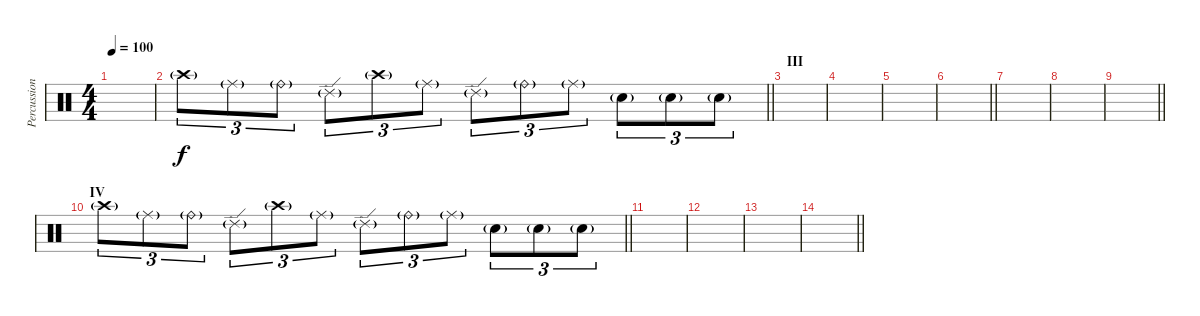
\track ("Percussion" "Percussion") {instrument percussion}
\staff {score}
\articulation defaults
\ts (4 4)
\tempo 100
\clef neutral
\ks c
|
\barLineRight lightlight "Crash high (hit)"{g}.8{tu (3 2)} "Ride (middle)"{g}.8{tu (3 2)} "Ride (bell)"{g}.8{tu (3 2)} "Ride (edge) 2"{g}.8{tu (3 2)} "Crash high (hit)"{g}.8{tu (3 2)} "Ride (middle)"{g}.8{tu (3 2)} "Ride (edge) 2"{g}.8{tu (3 2)} "Ride (bell)"{g}.8{tu (3 2)} "Ride (middle)"{g}.8{tu (3 2)} "Electric Snare (hit)"{g}.8{tu (3 2)} "Electric Snare (hit)"{g}.8{tu (3 2)} "Electric Snare (hit)"{g}.8{tu (3 2)}
|
\section ("" "III")
|
|
|
\barLineRight lightlight
|
|
|
\barLineRight lightlight
|
\section ("" "IV")
\barLineRight lightlight "Crash high (hit)"{g}.8{tu (3 2)} "Ride (middle)"{g}.8{tu (3 2)} "Ride (bell)"{g}.8{tu (3 2)} "Ride (edge) 2"{g}.8{tu (3 2)} "Crash high (hit)"{g}.8{tu (3 2)} "Ride (middle)"{g}.8{tu (3 2)} "Ride (edge) 2"{g}.8{tu (3 2)} "Ride (bell)"{g}.8{tu (3 2)} "Ride (middle)"{g}.8{tu (3 2)} "Electric Snare (hit)"{g}.8{tu (3 2)} "Electric Snare (hit)"{g}.8{tu (3 2)} "Electric Snare (hit)"{g}.8{tu (3 2)}
|
|
|
|
\barLineRight lightlight
